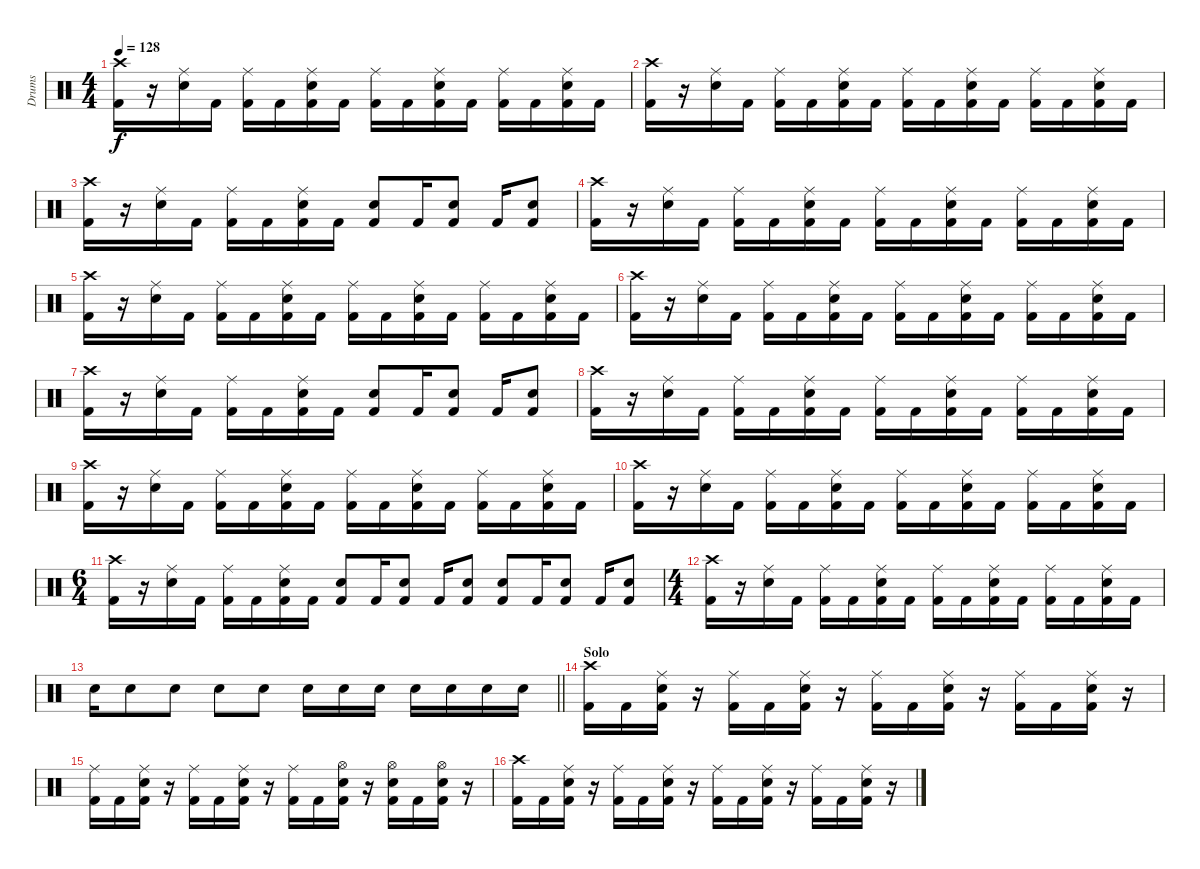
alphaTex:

\track ("Drums" "Drums") {instrument percussion}
\staff {score}
\articulation defaults
\ts (4 4)
\tempo 128
\clef neutral
\ks c
("Crash high (hit)" "Kick (hit) 2").16{dy f} r.16 ("Ride (middle)" "Snare (hit) 2").16 "Kick (hit) 2".16 ("Ride (middle)" "Kick (hit) 2").16 "Kick (hit) 2".16 ("Ride (middle)" "Snare (hit) 2" "Kick (hit) 2").16 "Kick (hit) 2".16 ("Ride (middle)" "Kick (hit) 2").16 "Kick (hit) 2".16 ("Ride (middle)" "Snare (hit) 2" "Kick (hit) 2").16 "Kick (hit) 2".16 ("Ride (middle)" "Kick (hit) 2").16 "Kick (hit) 2".16 ("Ride (middle)" "Snare (hit) 2" "Kick (hit) 2").16 "Kick (hit) 2".16 |
("Crash high (hit)" "Kick (hit) 2").16 r.16 ("Ride (middle)" "Snare (hit) 2").16 "Kick (hit) 2".16 ("Ride (middle)" "Kick (hit) 2").16 "Kick (hit) 2".16 ("Ride (middle)" "Snare (hit) 2" "Kick (hit) 2").16 "Kick (hit) 2".16 ("Ride (middle)" "Kick (hit) 2").16 "Kick (hit) 2".16 ("Ride (middle)" "Snare (hit) 2" "Kick (hit) 2").16 "Kick (hit) 2".16 ("Ride (middle)" "Kick (hit) 2").16 "Kick (hit) 2".16 ("Ride (middle)" "Snare (hit) 2" "Kick (hit) 2").16 "Kick (hit) 2".16 |
("Crash high (hit)" "Kick (hit) 2").16 r.16 ("Ride (middle)" "Snare (hit) 2").16 "Kick (hit) 2".16 ("Ride (middle)" "Kick (hit) 2").16 "Kick (hit) 2".16 ("Ride (middle)" "Snare (hit) 2" "Kick (hit) 2").16 "Kick (hit) 2".16 ("Snare (hit) 2" "Kick (hit) 2").8 "Kick (hit) 2".16 ("Snare (hit) 2" "Kick (hit) 2").8 "Kick (hit) 2".16 ("Snare (hit) 2" "Kick (hit) 2").8 |
("Crash high (hit)" "Kick (hit) 2").16 r.16 ("Ride (middle)" "Snare (hit) 2").16 "Kick (hit) 2".16 ("Ride (middle)" "Kick (hit) 2").16 "Kick (hit) 2".16 ("Ride (middle)" "Snare (hit) 2" "Kick (hit) 2").16 "Kick (hit) 2".16 ("Ride (middle)" "Kick (hit) 2").16 "Kick (hit) 2".16 ("Ride (middle)" "Snare (hit) 2" "Kick (hit) 2").16 "Kick (hit) 2".16 ("Ride (middle)" "Kick (hit) 2").16 "Kick (hit) 2".16 ("Ride (middle)" "Snare (hit) 2" "Kick (hit) 2").16 "Kick (hit) 2".16 |
("Crash high (hit)" "Kick (hit) 2").16 r.16 ("Ride (middle)" "Snare (hit) 2").16 "Kick (hit) 2".16 ("Ride (middle)" "Kick (hit) 2").16 "Kick (hit) 2".16 ("Ride (middle)" "Snare (hit) 2" "Kick (hit) 2").16 "Kick (hit) 2".16 ("Ride (middle)" "Kick (hit) 2").16 "Kick (hit) 2".16 ("Ride (middle)" "Snare (hit) 2" "Kick (hit) 2").16 "Kick (hit) 2".16 ("Ride (middle)" "Kick (hit) 2").16 "Kick (hit) 2".16 ("Ride (middle)" "Snare (hit) 2" "Kick (hit) 2").16 "Kick (hit) 2".16 |
("Crash high (hit)" "Kick (hit) 2").16 r.16 ("Ride (middle)" "Snare (hit) 2").16 "Kick (hit) 2".16 ("Ride (middle)" "Kick (hit) 2").16 "Kick (hit) 2".16 ("Ride (middle)" "Snare (hit) 2" "Kick (hit) 2").16 "Kick (hit) 2".16 ("Ride (middle)" "Kick (hit) 2").16 "Kick (hit) 2".16 ("Ride (middle)" "Snare (hit) 2" "Kick (hit) 2").16 "Kick (hit) 2".16 ("Ride (middle)" "Kick (hit) 2").16 "Kick (hit) 2".16 ("Ride (middle)" "Snare (hit) 2" "Kick (hit) 2").16 "Kick (hit) 2".16 |
("Crash high (hit)" "Kick (hit) 2").16 r.16 ("Ride (middle)" "Snare (hit) 2").16 "Kick (hit) 2".16 ("Ride (middle)" "Kick (hit) 2").16 "Kick (hit) 2".16 ("Ride (middle)" "Snare (hit) 2" "Kick (hit) 2").16 "Kick (hit) 2".16 ("Snare (hit) 2" "Kick (hit) 2").8 "Kick (hit) 2".16 ("Snare (hit) 2" "Kick (hit) 2").8 "Kick (hit) 2".16 ("Snare (hit) 2" "Kick (hit) 2").8 |
("Crash high (hit)" "Kick (hit) 2").16 r.16 ("Ride (middle)" "Snare (hit) 2").16 "Kick (hit) 2".16 ("Ride (middle)" "Kick (hit) 2").16 "Kick (hit) 2".16 ("Ride (middle)" "Snare (hit) 2" "Kick (hit) 2").16 "Kick (hit) 2".16 ("Ride (middle)" "Kick (hit) 2").16 "Kick (hit) 2".16 ("Ride (middle)" "Snare (hit) 2" "Kick (hit) 2").16 "Kick (hit) 2".16 ("Ride (middle)" "Kick (hit) 2").16 "Kick (hit) 2".16 ("Ride (middle)" "Snare (hit) 2" "Kick (hit) 2").16 "Kick (hit) 2".16 |
("Crash high (hit)" "Kick (hit) 2").16 r.16 ("Ride (middle)" "Snare (hit) 2").16 "Kick (hit) 2".16 ("Ride (middle)" "Kick (hit) 2").16 "Kick (hit) 2".16 ("Ride (middle)" "Snare (hit) 2" "Kick (hit) 2").16 "Kick (hit) 2".16 ("Ride (middle)" "Kick (hit) 2").16 "Kick (hit) 2".16 ("Ride (middle)" "Snare (hit) 2" "Kick (hit) 2").16 "Kick (hit) 2".16 ("Ride (middle)" "Kick (hit) 2").16 "Kick (hit) 2".16 ("Ride (middle)" "Snare (hit) 2" "Kick (hit) 2").16 "Kick (hit) 2".16 |
("Crash high (hit)" "Kick (hit) 2").16 r.16 ("Ride (middle)" "Snare (hit) 2").16 "Kick (hit) 2".16 ("Ride (middle)" "Kick (hit) 2").16 "Kick (hit) 2".16 ("Ride (middle)" "Snare (hit) 2" "Kick (hit) 2").16 "Kick (hit) 2".16 ("Ride (middle)" "Kick (hit) 2").16 "Kick (hit) 2".16 ("Ride (middle)" "Snare (hit) 2" "Kick (hit) 2").16 "Kick (hit) 2".16 ("Ride (middle)" "Kick (hit) 2").16 "Kick (hit) 2".16 ("Ride (middle)" "Snare (hit) 2" "Kick (hit) 2").16 "Kick (hit) 2".16 |
\ts (6 4)
("Crash high (hit)" "Kick (hit) 2").16 r.16 ("Ride (middle)" "Snare (hit) 2").16 "Kick (hit) 2".16 ("Ride (middle)" "Kick (hit) 2").16 "Kick (hit) 2".16 ("Ride (middle)" "Snare (hit) 2" "Kick (hit) 2").16 "Kick (hit) 2".16 ("Snare (hit) 2" "Kick (hit) 2").8 "Kick (hit) 2".16 ("Snare (hit) 2" "Kick (hit) 2").8 "Kick (hit) 2".16 ("Snare (hit) 2" "Kick (hit) 2").8 ("Snare (hit) 2" "Kick (hit) 2").8 "Kick (hit) 2".16 ("Snare (hit) 2" "Kick (hit) 2").8 "Kick (hit) 2".16 ("Snare (hit) 2" "Kick (hit) 2").8 |
\ts (4 4)
("Crash high (hit)" "Kick (hit) 2").16 r.16 ("Ride (middle)" "Snare (hit) 2").16 "Kick (hit) 2".16 ("Ride (middle)" "Kick (hit) 2").16 "Kick (hit) 2".16 ("Ride (middle)" "Snare (hit) 2" "Kick (hit) 2").16 "Kick (hit) 2".16 ("Ride (middle)" "Kick (hit) 2").16 "Kick (hit) 2".16 ("Ride (middle)" "Snare (hit) 2" "Kick (hit) 2").16 "Kick (hit) 2".16 ("Ride (middle)" "Kick (hit) 2").16 "Kick (hit) 2".16 ("Ride (middle)" "Snare (hit) 2" "Kick (hit) 2").16 "Kick (hit) 2".16 |
\barLineRight lightlight "Snare (hit) 2".16 "Snare (hit) 2".8 "Snare (hit) 2".8 "Snare (hit) 2".8 "Snare (hit) 2".8 "Snare (hit) 2".16 "Snare (hit) 2".16 "Snare (hit) 2".16 "Snare (hit) 2".16 "Snare (hit) 2".16 "Snare (hit) 2".16 "Snare (hit) 2".16
|
\section ("" "Solo")
("Crash high (hit)" "Kick (hit) 2").16 "Kick (hit) 2".16 ("Ride (middle)" "Snare (hit) 2" "Kick (hit) 2").16 r.16 ("Ride (middle)" "Kick (hit) 2").16 "Kick (hit) 2".16 ("Ride (middle)" "Snare (hit) 2" "Kick (hit) 2").16 r.16 ("Ride (middle)" "Kick (hit) 2").16 "Kick (hit) 2".16 ("Ride (middle)" "Snare (hit) 2" "Kick (hit) 2").16 r.16 ("Ride (middle)" "Kick (hit) 2").16 "Kick (hit) 2".16 ("Ride (middle)" "Snare (hit) 2" "Kick (hit) 2").16 r.16 |
("Ride (middle)" "Kick (hit) 2").16 "Kick (hit) 2".16 ("Ride (middle)" "Snare (hit) 2" "Kick (hit) 2").16 r.16 ("Ride (middle)" "Kick (hit) 2").16 "Kick (hit) 2".16 ("Ride (middle)" "Snare (hit) 2" "Kick (hit) 2").16 r.16 ("Ride (middle)" "Kick (hit) 2").16 "Kick (hit) 2".16 ("Hi-Hat (open)" "Snare (hit) 2" "Kick (hit) 2").16 r.16 ("Hi-Hat (open)" "Snare (hit) 2" "Kick (hit) 2").16 "Kick (hit) 2".16 ("Hi-Hat (open)" "Snare (hit) 2" "Kick (hit) 2").16 r.16 |
("Crash high (hit)" "Kick (hit) 2").16 "Kick (hit) 2".16 ("Ride (middle)" "Snare (hit) 2" "Kick (hit) 2").16 r.16 ("Ride (middle)" "Kick (hit) 2").16 "Kick (hit) 2".16 ("Ride (middle)" "Snare (hit) 2" "Kick (hit) 2").16 r.16 ("Ride (middle)" "Kick (hit) 2").16 "Kick (hit) 2".16 ("Ride (middle)" "Snare (hit) 2" "Kick (hit) 2").16 r.16 ("Ride (middle)" "Kick (hit) 2").16 "Kick (hit) 2".16 ("Ride (middle)" "Snare (hit) 2" "Kick (hit) 2").16 r.16
